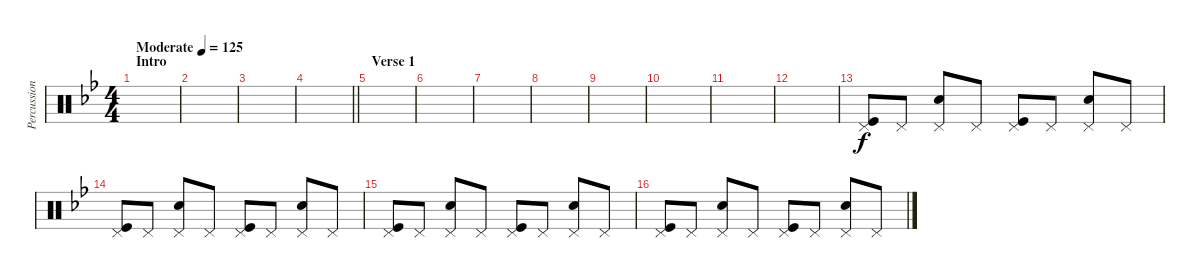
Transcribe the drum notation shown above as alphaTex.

\track ("Percussion" "Percussion") {instrument percussion}
\staff {score}
\articulation defaults
\ts (4 4)
\section ("" "Intro")
\tempo (125 "Moderate")
\clef neutral
\ks bb
|
|
|
\barLineRight lightlight
|
\section ("" "Verse 1")
|
|
|
|
|
|
|
|
("Kick (hit)" "Pedal Hi-Hat (hit)").8 "Pedal Hi-Hat (hit)".8 ("Snare (hit) 2" "Pedal Hi-Hat (hit)").8 "Pedal Hi-Hat (hit)".8 ("Kick (hit)" "Pedal Hi-Hat (hit)").8 "Pedal Hi-Hat (hit)".8 ("Snare (hit) 2" "Pedal Hi-Hat (hit)").8 "Pedal Hi-Hat (hit)".8 |
("Kick (hit)" "Pedal Hi-Hat (hit)").8 "Pedal Hi-Hat (hit)".8 ("Snare (hit) 2" "Pedal Hi-Hat (hit)").8 "Pedal Hi-Hat (hit)".8 ("Kick (hit)" "Pedal Hi-Hat (hit)").8 "Pedal Hi-Hat (hit)".8 ("Snare (hit) 2" "Pedal Hi-Hat (hit)").8 "Pedal Hi-Hat (hit)".8 |
("Kick (hit)" "Pedal Hi-Hat (hit)").8 "Pedal Hi-Hat (hit)".8 ("Snare (hit) 2" "Pedal Hi-Hat (hit)").8 "Pedal Hi-Hat (hit)".8 ("Kick (hit)" "Pedal Hi-Hat (hit)").8 "Pedal Hi-Hat (hit)".8 ("Snare (hit) 2" "Pedal Hi-Hat (hit)").8 "Pedal Hi-Hat (hit)".8 |
("Kick (hit)" "Pedal Hi-Hat (hit)").8 "Pedal Hi-Hat (hit)".8 ("Snare (hit) 2" "Pedal Hi-Hat (hit)").8 "Pedal Hi-Hat (hit)".8 ("Kick (hit)" "Pedal Hi-Hat (hit)").8 "Pedal Hi-Hat (hit)".8 ("Snare (hit) 2" "Pedal Hi-Hat (hit)").8 "Pedal Hi-Hat (hit)".8
